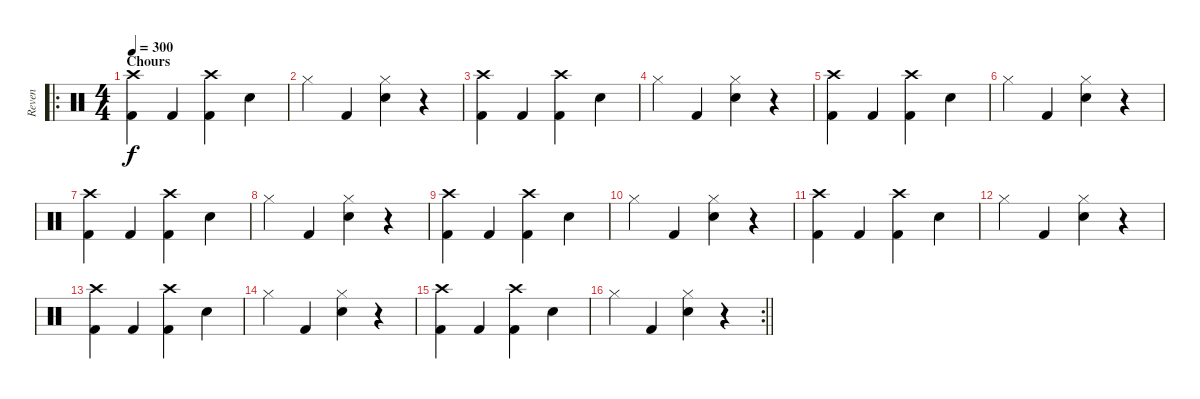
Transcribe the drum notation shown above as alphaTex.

\track ("Reven" "Reven") {instrument percussion}
\staff {score}
\articulation defaults
\ro
\ts (4 4)
\section ("" "Chours")
\tempo 300
\clef neutral
\ks c
("Crash high (hit)" "Kick (hit) 2").4{dy f} "Kick (hit) 2".4 ("Crash high (hit)" "Kick (hit) 2").4 "Electric Snare (hit)".4 |
"Hi-Hat (closed)".4 "Kick (hit) 2".4 ("Hi-Hat (closed)" "Electric Snare (hit)").4 r.4 |
("Crash high (hit)" "Kick (hit) 2").4 "Kick (hit) 2".4 ("Crash high (hit)" "Kick (hit) 2").4 "Electric Snare (hit)".4 |
"Hi-Hat (closed)".4 "Kick (hit) 2".4 ("Hi-Hat (closed)" "Electric Snare (hit)").4 r.4 |
("Crash high (hit)" "Kick (hit) 2").4 "Kick (hit) 2".4 ("Crash high (hit)" "Kick (hit) 2").4 "Electric Snare (hit)".4 |
"Hi-Hat (closed)".4 "Kick (hit) 2".4 ("Hi-Hat (closed)" "Electric Snare (hit)").4 r.4 |
("Crash high (hit)" "Kick (hit) 2").4 "Kick (hit) 2".4 ("Crash high (hit)" "Kick (hit) 2").4 "Electric Snare (hit)".4 |
"Hi-Hat (closed)".4 "Kick (hit) 2".4 ("Hi-Hat (closed)" "Electric Snare (hit)").4 r.4 |
("Crash high (hit)" "Kick (hit) 2").4 "Kick (hit) 2".4 ("Crash high (hit)" "Kick (hit) 2").4 "Electric Snare (hit)".4 |
"Hi-Hat (closed)".4 "Kick (hit) 2".4 ("Hi-Hat (closed)" "Electric Snare (hit)").4 r.4 |
("Crash high (hit)" "Kick (hit) 2").4 "Kick (hit) 2".4 ("Crash high (hit)" "Kick (hit) 2").4 "Electric Snare (hit)".4 |
"Hi-Hat (closed)".4 "Kick (hit) 2".4 ("Hi-Hat (closed)" "Electric Snare (hit)").4 r.4 |
("Crash high (hit)" "Kick (hit) 2").4 "Kick (hit) 2".4 ("Crash high (hit)" "Kick (hit) 2").4 "Electric Snare (hit)".4 |
"Hi-Hat (closed)".4 "Kick (hit) 2".4 ("Hi-Hat (closed)" "Electric Snare (hit)").4 r.4 |
("Crash high (hit)" "Kick (hit) 2").4 "Kick (hit) 2".4 ("Crash high (hit)" "Kick (hit) 2").4 "Electric Snare (hit)".4 |
\rc 2
\barLineRight lightlight "Hi-Hat (closed)".4 "Kick (hit) 2".4
("Hi-Hat (closed)" "Electric Snare (hit)").4 r.4
